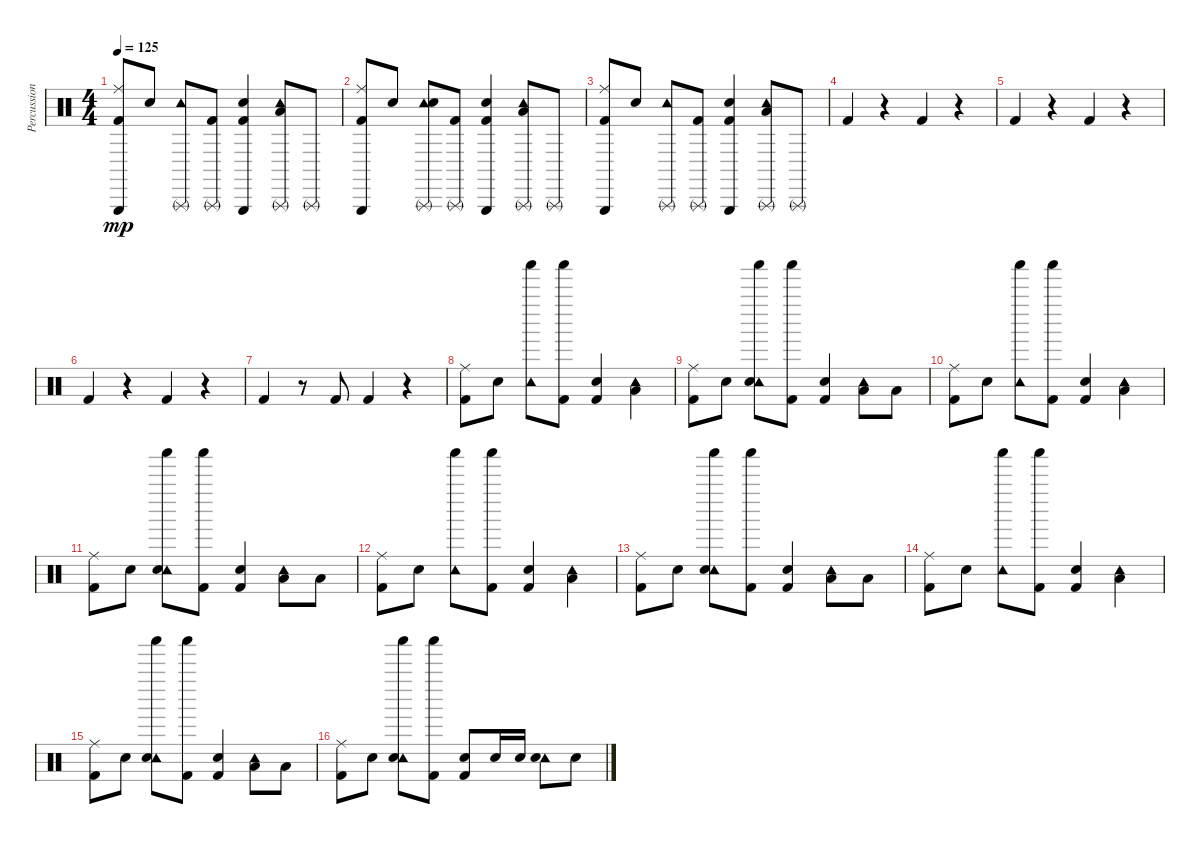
\track ("Percussion" "Percussion") {instrument percussion}
\staff {score}
\articulation defaults
\ts (4 4)
\tempo 125
\clef neutral
\ks c
("Triangle (hit)" "Ride (middle)" "Kick (hit) 2").8{dy mp} "Snare (hit) 2".8 ("Triangle (rnute)" "Tambourine (hit)").8 ("Triangle (rnute)" "Kick (hit) 2").8 ("Triangle (hit)" "Kick (hit) 2" "Snare (hit) 2").4 ("Tambourine (hit)" "Low Tom (hit)" "Triangle (rnute)").8 "Triangle (rnute)".8 |
("Triangle (hit)" "Ride (middle)" "Kick (hit) 2").8 "Snare (hit) 2".8 ("Triangle (rnute)" "Tambourine (hit)" "Snare (hit) 2").8 ("Triangle (rnute)" "Kick (hit) 2").8 ("Triangle (hit)" "Kick (hit) 2" "Snare (hit) 2").4 ("Tambourine (hit)" "Low Tom (hit)" "Triangle (rnute)").8 "Triangle (rnute)".8 |
("Triangle (hit)" "Ride (middle)" "Kick (hit) 2").8 "Snare (hit) 2".8 ("Triangle (rnute)" "Tambourine (hit)").8 ("Triangle (rnute)" "Kick (hit) 2").8 ("Triangle (hit)" "Kick (hit) 2" "Snare (hit) 2").4 ("Tambourine (hit)" "Low Tom (hit)" "Triangle (rnute)").8 "Triangle (rnute)".8 |
"Kick (hit) 2".4 r.4 "Kick (hit) 2".4 r.4 |
"Kick (hit) 2".4 r.4 "Kick (hit) 2".4 r.4 |
"Kick (hit) 2".4 r.4 "Kick (hit) 2".4 r.4 |
"Kick (hit) 2".4 r.8 "Kick (hit) 2".8 "Kick (hit) 2".4 r.4 |
("Ride (middle)" "Kick (hit) 2").8 "Snare (hit) 2".8 ("Shaker (hit)" "Tambourine (hit)").8 ("Shaker (hit)" "Kick (hit) 2").8 ("Kick (hit) 2" "Snare (hit) 2").4 ("Tambourine (hit)" "Low Tom (hit)").4 |
("Ride (middle)" "Kick (hit) 2").8 "Snare (hit) 2".8 ("Shaker (hit)" "Tambourine (hit)" "Snare (hit) 2").8 ("Shaker (hit)" "Kick (hit) 2").8 ("Kick (hit) 2" "Snare (hit) 2").4 ("Tambourine (hit)" "Low Tom (hit)").8 "Low Tom (hit)".8 |
("Ride (middle)" "Kick (hit) 2").8 "Snare (hit) 2".8 ("Shaker (hit)" "Tambourine (hit)").8 ("Shaker (hit)" "Kick (hit) 2").8 ("Kick (hit) 2" "Snare (hit) 2").4 ("Tambourine (hit)" "Low Tom (hit)").4 |
("Ride (middle)" "Kick (hit) 2").8 "Snare (hit) 2".8 ("Shaker (hit)" "Tambourine (hit)" "Snare (hit) 2").8 ("Shaker (hit)" "Kick (hit) 2").8 ("Kick (hit) 2" "Snare (hit) 2").4 ("Tambourine (hit)" "Low Tom (hit)").8 "Low Tom (hit)".8 |
("Ride (middle)" "Kick (hit) 2").8 "Snare (hit) 2".8 ("Shaker (hit)" "Tambourine (hit)").8 ("Shaker (hit)" "Kick (hit) 2").8 ("Kick (hit) 2" "Snare (hit) 2").4 ("Tambourine (hit)" "Low Tom (hit)").4 |
("Ride (middle)" "Kick (hit) 2").8 "Snare (hit) 2".8 ("Shaker (hit)" "Tambourine (hit)" "Snare (hit) 2").8 ("Shaker (hit)" "Kick (hit) 2").8 ("Kick (hit) 2" "Snare (hit) 2").4 ("Tambourine (hit)" "Low Tom (hit)").8 "Low Tom (hit)".8 |
("Ride (middle)" "Kick (hit) 2").8 "Snare (hit) 2".8 ("Shaker (hit)" "Tambourine (hit)").8 ("Shaker (hit)" "Kick (hit) 2").8 ("Kick (hit) 2" "Snare (hit) 2").4 ("Tambourine (hit)" "Low Tom (hit)").4 |
("Ride (middle)" "Kick (hit) 2").8 "Snare (hit) 2".8 ("Shaker (hit)" "Tambourine (hit)" "Snare (hit) 2").8 ("Shaker (hit)" "Kick (hit) 2").8 ("Kick (hit) 2" "Snare (hit) 2").4 ("Tambourine (hit)" "Low Tom (hit)").8 "Low Tom (hit)".8 |
("Ride (middle)" "Kick (hit) 2").8 "Snare (hit) 2".8 ("Shaker (hit)" "Tambourine (hit)" "Snare (hit) 2").8 ("Shaker (hit)" "Kick (hit) 2").8 ("Kick (hit) 2" "Snare (hit) 2").8 "Snare (hit) 2".16 "Snare (hit) 2".16 ("Tambourine (hit)" "Snare (hit) 2").8 "Snare (hit) 2".8
